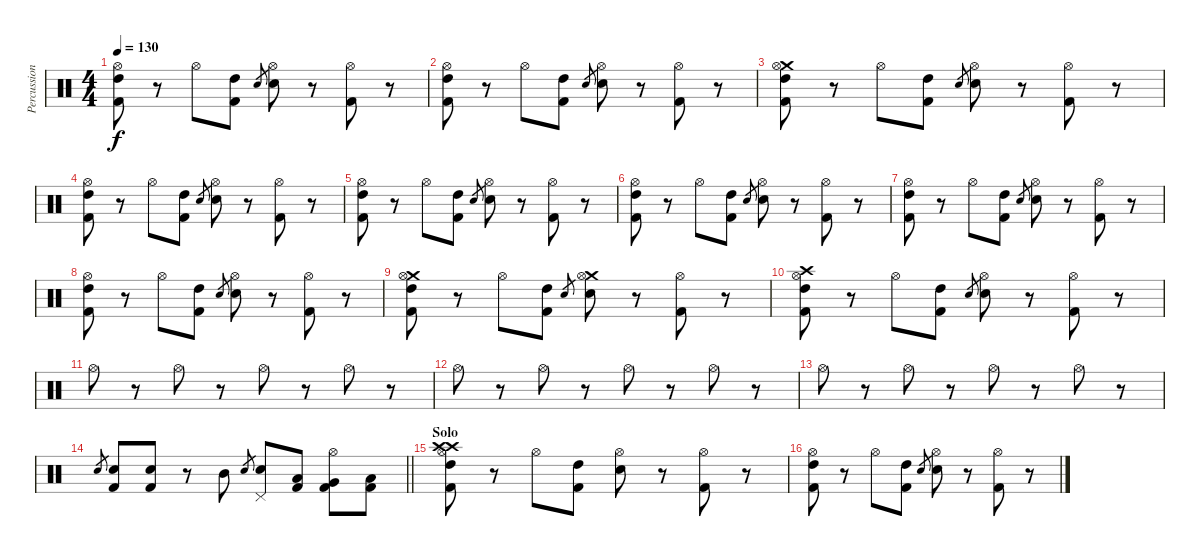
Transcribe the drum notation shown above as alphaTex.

\track ("Percussion" "Percussion") {instrument percussion}
\staff {score}
\articulation defaults
\ts (4 4)
\tempo 130
\clef neutral
\ks c
("Hi-Hat (open)" "High Tom (hit)" "Kick (hit) 2").8{dy f} r.8 "Hi-Hat (open)".8 ("High Tom (hit)" "Kick (hit) 2").8 "Snare (hit) 2".8{gr} ("Hi-Hat (open)" "Snare (hit) 2").8 r.8 ("Hi-Hat (open)" "Kick (hit) 2").8 r.8 |
("Hi-Hat (open)" "High Tom (hit)" "Kick (hit) 2").8 r.8 "Hi-Hat (open)".8 ("High Tom (hit)" "Kick (hit) 2").8 "Snare (hit) 2".8{gr} ("Hi-Hat (open)" "Snare (hit) 2").8 r.8 ("Hi-Hat (open)" "Kick (hit) 2").8 r.8 |
("Crash medium (hit)" "Hi-Hat (open)" "High Tom (hit)" "Kick (hit) 2").8 r.8 "Hi-Hat (open)".8 ("High Tom (hit)" "Kick (hit) 2").8 "Snare (hit) 2".8{gr} ("Hi-Hat (open)" "Snare (hit) 2").8 r.8 ("Hi-Hat (open)" "Kick (hit) 2").8 r.8 |
("Hi-Hat (open)" "High Tom (hit)" "Kick (hit) 2").8 r.8 "Hi-Hat (open)".8 ("High Tom (hit)" "Kick (hit) 2").8 "Snare (hit) 2".8{gr} ("Hi-Hat (open)" "Snare (hit) 2").8 r.8 ("Hi-Hat (open)" "Kick (hit) 2").8 r.8 |
("Hi-Hat (open)" "High Tom (hit)" "Kick (hit) 2").8 r.8 "Hi-Hat (open)".8 ("High Tom (hit)" "Kick (hit) 2").8 "Snare (hit) 2".8{gr} ("Hi-Hat (open)" "Snare (hit) 2").8 r.8 ("Hi-Hat (open)" "Kick (hit) 2").8 r.8 |
("Hi-Hat (open)" "High Tom (hit)" "Kick (hit) 2").8 r.8 "Hi-Hat (open)".8 ("High Tom (hit)" "Kick (hit) 2").8 "Snare (hit) 2".8{gr} ("Hi-Hat (open)" "Snare (hit) 2").8 r.8 ("Hi-Hat (open)" "Kick (hit) 2").8 r.8 |
("Hi-Hat (open)" "High Tom (hit)" "Kick (hit) 2").8 r.8 "Hi-Hat (open)".8 ("High Tom (hit)" "Kick (hit) 2").8 "Snare (hit) 2".8{gr} ("Hi-Hat (open)" "Snare (hit) 2").8 r.8 ("Hi-Hat (open)" "Kick (hit) 2").8 r.8 |
("Hi-Hat (open)" "High Tom (hit)" "Kick (hit) 2").8 r.8 "Hi-Hat (open)".8 ("High Tom (hit)" "Kick (hit) 2").8 "Snare (hit) 2".8{gr} ("Hi-Hat (open)" "Snare (hit) 2").8 r.8 ("Hi-Hat (open)" "Kick (hit) 2").8 r.8 |
("Crash medium (hit)" "Hi-Hat (open)" "High Tom (hit)" "Kick (hit) 2").8 r.8 "Hi-Hat (open)".8 ("High Tom (hit)" "Kick (hit) 2").8 "Snare (hit) 2".8{gr} ("Crash medium (hit)" "Hi-Hat (open)" "Snare (hit) 2").8 r.8 ("Hi-Hat (open)" "Kick (hit) 2").8 r.8 |
("Crash high (hit)" "Hi-Hat (open)" "High Tom (hit)" "Kick (hit) 2").8 r.8 "Hi-Hat (open)".8 ("High Tom (hit)" "Kick (hit) 2").8 "Snare (hit) 2".8{gr} ("Hi-Hat (open)" "Snare (hit) 2").8 r.8 ("Hi-Hat (open)" "Kick (hit) 2").8 r.8 |
"Hi-Hat (open)".8 r.8 "Hi-Hat (open)".8 r.8 "Hi-Hat (open)".8 r.8 "Hi-Hat (open)".8 r.8 |
"Hi-Hat (open)".8 r.8 "Hi-Hat (open)".8 r.8 "Hi-Hat (open)".8 r.8 "Hi-Hat (open)".8 r.8 |
"Hi-Hat (open)".8 r.8 "Hi-Hat (open)".8 r.8 "Hi-Hat (open)".8 r.8 "Hi-Hat (open)".8 r.8 |
\barLineRight lightlight "Snare (hit) 2".8{gr}
("Snare (hit) 2" "Kick (hit) 2").8 ("Snare (hit) 2" "Kick (hit) 2").8 r.8 "Mid Tom (hit)".8 "Snare (hit) 2".8{gr} ("Pedal Hi-Hat (hit)" "Snare (hit) 2").8 ("Low Tom (hit)" "Kick (hit) 2").8 ("Hi-Hat (open)" "Very Low Tom (hit)" "Kick (hit) 2").8 ("Low Floor Tom (hit)" "Kick (hit) 2").8 |
\section ("" "Solo")
("Crash high (hit)" "Hi-Hat (open)" "Crash high (hit)" "High Tom (hit)" "Kick (hit) 2").8 r.8 "Hi-Hat (open)".8 ("High Tom (hit)" "Kick (hit) 2").8 ("Hi-Hat (open)" "Snare (hit) 2").8 r.8 ("Hi-Hat (open)" "Kick (hit) 2").8 r.8 |
("Hi-Hat (open)" "High Tom (hit)" "Kick (hit) 2").8 r.8 "Hi-Hat (open)".8 ("High Tom (hit)" "Kick (hit) 2").8 "Snare (hit) 2".8{gr} ("Hi-Hat (open)" "Snare (hit) 2").8 r.8 ("Hi-Hat (open)" "Kick (hit) 2").8 r.8
